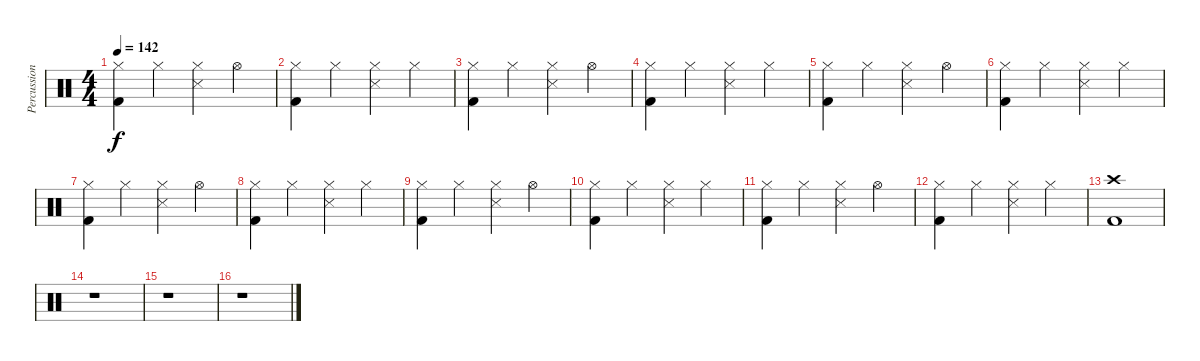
\track ("Percussions" "Percussion") {instrument percussion}
\staff {score}
\articulation defaults
\ts (4 4)
\tempo 142
\clef neutral
\ks c
("Hi-Hat (closed)" "Kick (hit) 2").4{dy f} "Hi-Hat (closed)".4 ("Hi-Hat (closed)" "Metronome (hit)").4 "Hi-Hat (open)".4 |
("Hi-Hat (closed)" "Kick (hit) 2").4 "Hi-Hat (closed)".4 ("Hi-Hat (closed)" "Metronome (hit)").4 "Hi-Hat (closed)".4 |
("Hi-Hat (closed)" "Kick (hit) 2").4 "Hi-Hat (closed)".4 ("Hi-Hat (closed)" "Metronome (hit)").4 "Hi-Hat (open)".4 |
("Hi-Hat (closed)" "Kick (hit) 2").4 "Hi-Hat (closed)".4 ("Hi-Hat (closed)" "Metronome (hit)").4 "Hi-Hat (closed)".4 |
("Hi-Hat (closed)" "Kick (hit) 2").4 "Hi-Hat (closed)".4 ("Hi-Hat (closed)" "Metronome (hit)").4 "Hi-Hat (open)".4 |
("Hi-Hat (closed)" "Kick (hit) 2").4 "Hi-Hat (closed)".4 ("Hi-Hat (closed)" "Metronome (hit)").4 "Hi-Hat (closed)".4 |
("Hi-Hat (closed)" "Kick (hit) 2").4 "Hi-Hat (closed)".4 ("Hi-Hat (closed)" "Metronome (hit)").4 "Hi-Hat (open)".4 |
("Hi-Hat (closed)" "Kick (hit) 2").4 "Hi-Hat (closed)".4 ("Hi-Hat (closed)" "Metronome (hit)").4 "Hi-Hat (closed)".4 |
("Hi-Hat (closed)" "Kick (hit) 2").4 "Hi-Hat (closed)".4 ("Hi-Hat (closed)" "Metronome (hit)").4 "Hi-Hat (open)".4 |
("Hi-Hat (closed)" "Kick (hit) 2").4 "Hi-Hat (closed)".4 ("Hi-Hat (closed)" "Metronome (hit)").4 "Hi-Hat (closed)".4 |
("Hi-Hat (closed)" "Kick (hit) 2").4 "Hi-Hat (closed)".4 ("Hi-Hat (closed)" "Metronome (hit)").4 "Hi-Hat (open)".4 |
("Hi-Hat (closed)" "Kick (hit) 2").4 "Hi-Hat (closed)".4 ("Hi-Hat (closed)" "Metronome (hit)").4 "Hi-Hat (closed)".4 |
("Crash high (hit)" "Kick (hit) 2").1 |
r.1 |
r.1 |
r.1
